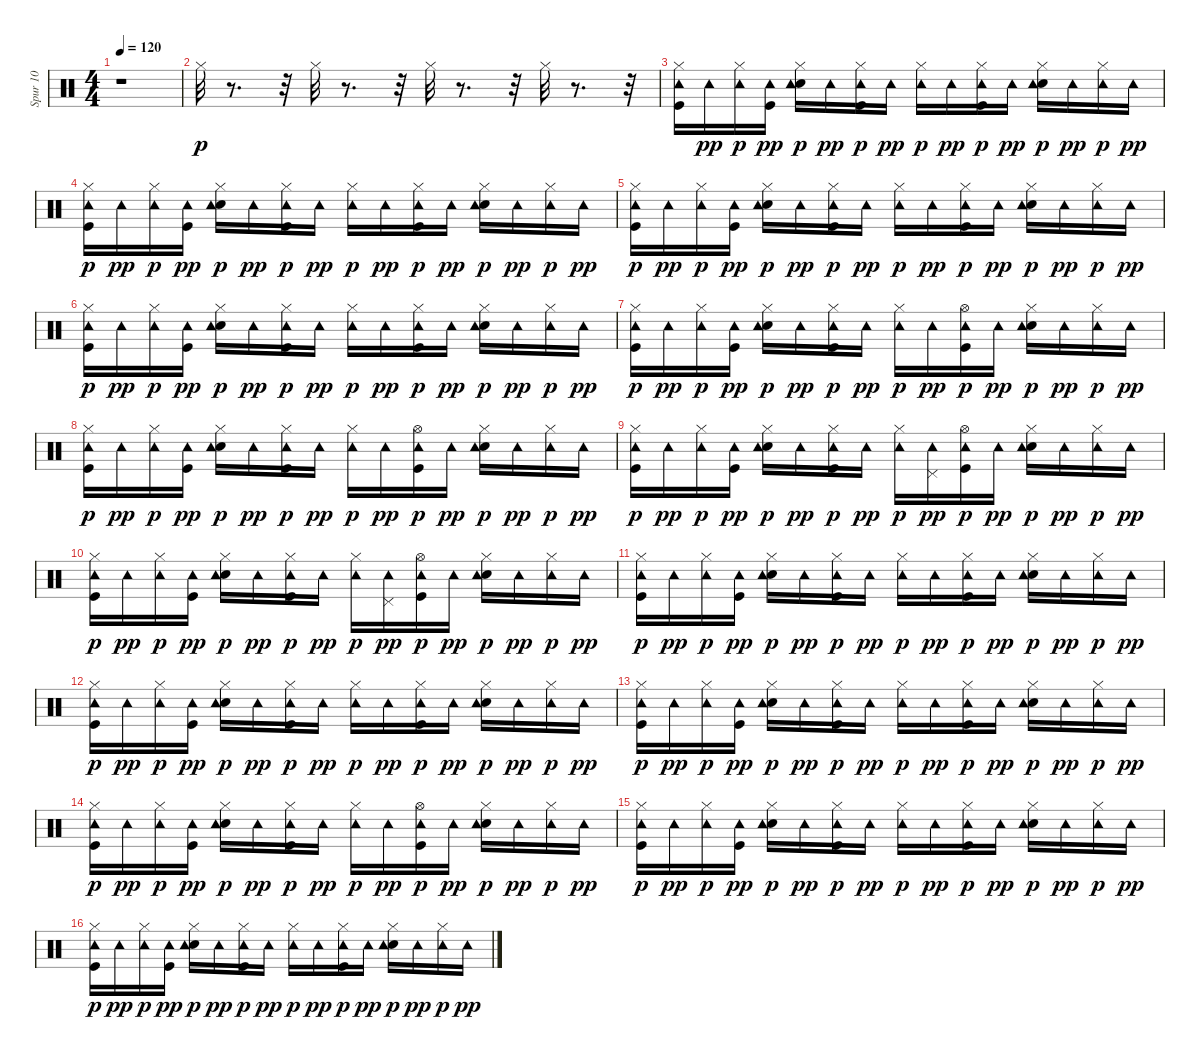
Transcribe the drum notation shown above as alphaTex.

\track ("Spur 10" "Spur 10") {instrument percussion}
\staff {score}
\articulation defaults
\ts (4 4)
\tempo 120
\clef neutral
\ks c
r.1{dy p} |
"Hi-Hat (closed)".32 r.8{d} r.32 "Hi-Hat (closed)".32 r.8{d} r.32 "Hi-Hat (closed)".32 r.8{d} r.32 "Hi-Hat (closed)".32 r.8{d} r.32 |
("Kick (hit)" "Hi-Hat (closed)" "Tambourine (hit)").16 "Tambourine (hit)".16{dy pp} ("Hi-Hat (closed)" "Tambourine (hit)").16{dy p} ("Kick (hit)" "Tambourine (hit)").16{dy pp} ("Electric Snare (hit)" "Hi-Hat (closed)" "Tambourine (hit)").16{dy p} "Tambourine (hit)".16{dy pp} ("Kick (hit)" "Hi-Hat (closed)" "Tambourine (hit)").16{dy p} "Tambourine (hit)".16{dy pp} ("Hi-Hat (closed)" "Tambourine (hit)").16{dy p} "Tambourine (hit)".16{dy pp} ("Kick (hit)" "Hi-Hat (closed)" "Tambourine (hit)").16{dy p} "Tambourine (hit)".16{dy pp} ("Electric Snare (hit)" "Hi-Hat (closed)" "Tambourine (hit)").16{dy p} "Tambourine (hit)".16{dy pp} ("Hi-Hat (closed)" "Tambourine (hit)").16{dy p} "Tambourine (hit)".16{dy pp} |
("Kick (hit)" "Hi-Hat (closed)" "Tambourine (hit)").16{dy p} "Tambourine (hit)".16{dy pp} ("Hi-Hat (closed)" "Tambourine (hit)").16{dy p} ("Kick (hit)" "Tambourine (hit)").16{dy pp} ("Electric Snare (hit)" "Hi-Hat (closed)" "Tambourine (hit)").16{dy p} "Tambourine (hit)".16{dy pp} ("Kick (hit)" "Hi-Hat (closed)" "Tambourine (hit)").16{dy p} "Tambourine (hit)".16{dy pp} ("Hi-Hat (closed)" "Tambourine (hit)").16{dy p} "Tambourine (hit)".16{dy pp} ("Kick (hit)" "Hi-Hat (closed)" "Tambourine (hit)").16{dy p} "Tambourine (hit)".16{dy pp} ("Electric Snare (hit)" "Hi-Hat (closed)" "Tambourine (hit)").16{dy p} "Tambourine (hit)".16{dy pp} ("Hi-Hat (closed)" "Tambourine (hit)").16{dy p} "Tambourine (hit)".16{dy pp} |
("Kick (hit)" "Hi-Hat (closed)" "Tambourine (hit)").16{dy p} "Tambourine (hit)".16{dy pp} ("Hi-Hat (closed)" "Tambourine (hit)").16{dy p} ("Kick (hit)" "Tambourine (hit)").16{dy pp} ("Electric Snare (hit)" "Hi-Hat (closed)" "Tambourine (hit)").16{dy p} "Tambourine (hit)".16{dy pp} ("Kick (hit)" "Hi-Hat (closed)" "Tambourine (hit)").16{dy p} "Tambourine (hit)".16{dy pp} ("Hi-Hat (closed)" "Tambourine (hit)").16{dy p} "Tambourine (hit)".16{dy pp} ("Kick (hit)" "Hi-Hat (closed)" "Tambourine (hit)").16{dy p} "Tambourine (hit)".16{dy pp} ("Electric Snare (hit)" "Hi-Hat (closed)" "Tambourine (hit)").16{dy p} "Tambourine (hit)".16{dy pp} ("Hi-Hat (closed)" "Tambourine (hit)").16{dy p} "Tambourine (hit)".16{dy pp} |
("Kick (hit)" "Hi-Hat (closed)" "Tambourine (hit)").16{dy p} "Tambourine (hit)".16{dy pp} ("Hi-Hat (closed)" "Tambourine (hit)").16{dy p} ("Kick (hit)" "Tambourine (hit)").16{dy pp} ("Electric Snare (hit)" "Hi-Hat (closed)" "Tambourine (hit)").16{dy p} "Tambourine (hit)".16{dy pp} ("Kick (hit)" "Hi-Hat (closed)" "Tambourine (hit)").16{dy p} "Tambourine (hit)".16{dy pp} ("Hi-Hat (closed)" "Tambourine (hit)").16{dy p} "Tambourine (hit)".16{dy pp} ("Kick (hit)" "Hi-Hat (closed)" "Tambourine (hit)").16{dy p} "Tambourine (hit)".16{dy pp} ("Electric Snare (hit)" "Hi-Hat (closed)" "Tambourine (hit)").16{dy p} "Tambourine (hit)".16{dy pp} ("Hi-Hat (closed)" "Tambourine (hit)").16{dy p} "Tambourine (hit)".16{dy pp} |
("Kick (hit)" "Hi-Hat (closed)" "Tambourine (hit)").16{dy p} "Tambourine (hit)".16{dy pp} ("Hi-Hat (closed)" "Tambourine (hit)").16{dy p} ("Kick (hit)" "Tambourine (hit)").16{dy pp} ("Electric Snare (hit)" "Hi-Hat (closed)" "Tambourine (hit)").16{dy p} "Tambourine (hit)".16{dy pp} ("Kick (hit)" "Hi-Hat (closed)" "Tambourine (hit)").16{dy p} "Tambourine (hit)".16{dy pp} ("Hi-Hat (closed)" "Tambourine (hit)").16{dy p} "Tambourine (hit)".16{dy pp} ("Kick (hit)" "Hi-Hat (open)" "Tambourine (hit)").16{dy p} "Tambourine (hit)".16{dy pp} ("Electric Snare (hit)" "Hi-Hat (closed)" "Tambourine (hit)").16{dy p} "Tambourine (hit)".16{dy pp} ("Hi-Hat (closed)" "Tambourine (hit)").16{dy p} "Tambourine (hit)".16{dy pp} |
("Kick (hit)" "Hi-Hat (closed)" "Tambourine (hit)").16{dy p} "Tambourine (hit)".16{dy pp} ("Hi-Hat (closed)" "Tambourine (hit)").16{dy p} ("Kick (hit)" "Tambourine (hit)").16{dy pp} ("Electric Snare (hit)" "Hi-Hat (closed)" "Tambourine (hit)").16{dy p} "Tambourine (hit)".16{dy pp} ("Kick (hit)" "Hi-Hat (closed)" "Tambourine (hit)").16{dy p} "Tambourine (hit)".16{dy pp} ("Hi-Hat (closed)" "Tambourine (hit)").16{dy p} "Tambourine (hit)".16{dy pp} ("Kick (hit)" "Hi-Hat (open)" "Tambourine (hit)").16{dy p} "Tambourine (hit)".16{dy pp} ("Electric Snare (hit)" "Hi-Hat (closed)" "Tambourine (hit)").16{dy p} "Tambourine (hit)".16{dy pp} ("Hi-Hat (closed)" "Tambourine (hit)").16{dy p} "Tambourine (hit)".16{dy pp} |
("Kick (hit)" "Hi-Hat (closed)" "Tambourine (hit)").16{dy p} "Tambourine (hit)".16{dy pp} ("Hi-Hat (closed)" "Tambourine (hit)").16{dy p} ("Kick (hit)" "Tambourine (hit)").16{dy pp} ("Electric Snare (hit)" "Hi-Hat (closed)" "Tambourine (hit)").16{dy p} "Tambourine (hit)".16{dy pp} ("Kick (hit)" "Hi-Hat (closed)" "Tambourine (hit)").16{dy p} "Tambourine (hit)".16{dy pp} ("Hi-Hat (closed)" "Tambourine (hit)").16{dy p} ("Pedal Hi-Hat (hit)" "Tambourine (hit)").16{dy pp} ("Kick (hit)" "Hi-Hat (open)" "Tambourine (hit)").16{dy p} "Tambourine (hit)".16{dy pp} ("Electric Snare (hit)" "Hi-Hat (closed)" "Tambourine (hit)").16{dy p} "Tambourine (hit)".16{dy pp} ("Hi-Hat (closed)" "Tambourine (hit)").16{dy p} "Tambourine (hit)".16{dy pp} |
("Kick (hit)" "Hi-Hat (closed)" "Tambourine (hit)").16{dy p} "Tambourine (hit)".16{dy pp} ("Hi-Hat (closed)" "Tambourine (hit)").16{dy p} ("Kick (hit)" "Tambourine (hit)").16{dy pp} ("Electric Snare (hit)" "Hi-Hat (closed)" "Tambourine (hit)").16{dy p} "Tambourine (hit)".16{dy pp} ("Kick (hit)" "Hi-Hat (closed)" "Tambourine (hit)").16{dy p} "Tambourine (hit)".16{dy pp} ("Hi-Hat (closed)" "Tambourine (hit)").16{dy p} ("Pedal Hi-Hat (hit)" "Tambourine (hit)").16{dy pp} ("Kick (hit)" "Hi-Hat (open)" "Tambourine (hit)").16{dy p} "Tambourine (hit)".16{dy pp} ("Electric Snare (hit)" "Hi-Hat (closed)" "Tambourine (hit)").16{dy p} "Tambourine (hit)".16{dy pp} ("Hi-Hat (closed)" "Tambourine (hit)").16{dy p} "Tambourine (hit)".16{dy pp} |
("Kick (hit)" "Hi-Hat (closed)" "Tambourine (hit)").16{dy p} "Tambourine (hit)".16{dy pp} ("Hi-Hat (closed)" "Tambourine (hit)").16{dy p} ("Kick (hit)" "Tambourine (hit)").16{dy pp} ("Electric Snare (hit)" "Hi-Hat (closed)" "Tambourine (hit)").16{dy p} "Tambourine (hit)".16{dy pp} ("Kick (hit)" "Hi-Hat (closed)" "Tambourine (hit)").16{dy p} "Tambourine (hit)".16{dy pp} ("Hi-Hat (closed)" "Tambourine (hit)").16{dy p} "Tambourine (hit)".16{dy pp} ("Kick (hit)" "Hi-Hat (closed)" "Tambourine (hit)").16{dy p} "Tambourine (hit)".16{dy pp} ("Electric Snare (hit)" "Hi-Hat (closed)" "Tambourine (hit)").16{dy p} "Tambourine (hit)".16{dy pp} ("Hi-Hat (closed)" "Tambourine (hit)").16{dy p} "Tambourine (hit)".16{dy pp} |
("Kick (hit)" "Hi-Hat (closed)" "Tambourine (hit)").16{dy p} "Tambourine (hit)".16{dy pp} ("Hi-Hat (closed)" "Tambourine (hit)").16{dy p} ("Kick (hit)" "Tambourine (hit)").16{dy pp} ("Electric Snare (hit)" "Hi-Hat (closed)" "Tambourine (hit)").16{dy p} "Tambourine (hit)".16{dy pp} ("Kick (hit)" "Hi-Hat (closed)" "Tambourine (hit)").16{dy p} "Tambourine (hit)".16{dy pp} ("Hi-Hat (closed)" "Tambourine (hit)").16{dy p} "Tambourine (hit)".16{dy pp} ("Kick (hit)" "Hi-Hat (closed)" "Tambourine (hit)").16{dy p} "Tambourine (hit)".16{dy pp} ("Electric Snare (hit)" "Hi-Hat (closed)" "Tambourine (hit)").16{dy p} "Tambourine (hit)".16{dy pp} ("Hi-Hat (closed)" "Tambourine (hit)").16{dy p} "Tambourine (hit)".16{dy pp} |
("Kick (hit)" "Hi-Hat (closed)" "Tambourine (hit)").16{dy p} "Tambourine (hit)".16{dy pp} ("Hi-Hat (closed)" "Tambourine (hit)").16{dy p} ("Kick (hit)" "Tambourine (hit)").16{dy pp} ("Electric Snare (hit)" "Hi-Hat (closed)" "Tambourine (hit)").16{dy p} "Tambourine (hit)".16{dy pp} ("Kick (hit)" "Hi-Hat (closed)" "Tambourine (hit)").16{dy p} "Tambourine (hit)".16{dy pp} ("Hi-Hat (closed)" "Tambourine (hit)").16{dy p} "Tambourine (hit)".16{dy pp} ("Kick (hit)" "Hi-Hat (closed)" "Tambourine (hit)").16{dy p} "Tambourine (hit)".16{dy pp} ("Electric Snare (hit)" "Hi-Hat (closed)" "Tambourine (hit)").16{dy p} "Tambourine (hit)".16{dy pp} ("Hi-Hat (closed)" "Tambourine (hit)").16{dy p} "Tambourine (hit)".16{dy pp} |
("Kick (hit)" "Hi-Hat (closed)" "Tambourine (hit)").16{dy p} "Tambourine (hit)".16{dy pp} ("Hi-Hat (closed)" "Tambourine (hit)").16{dy p} ("Kick (hit)" "Tambourine (hit)").16{dy pp} ("Electric Snare (hit)" "Hi-Hat (closed)" "Tambourine (hit)").16{dy p} "Tambourine (hit)".16{dy pp} ("Kick (hit)" "Hi-Hat (closed)" "Tambourine (hit)").16{dy p} "Tambourine (hit)".16{dy pp} ("Hi-Hat (closed)" "Tambourine (hit)").16{dy p} "Tambourine (hit)".16{dy pp} ("Kick (hit)" "Hi-Hat (open)" "Tambourine (hit)").16{dy p} "Tambourine (hit)".16{dy pp} ("Electric Snare (hit)" "Hi-Hat (closed)" "Tambourine (hit)").16{dy p} "Tambourine (hit)".16{dy pp} ("Hi-Hat (closed)" "Tambourine (hit)").16{dy p} "Tambourine (hit)".16{dy pp} |
("Kick (hit)" "Hi-Hat (closed)" "Tambourine (hit)").16{dy p} "Tambourine (hit)".16{dy pp} ("Hi-Hat (closed)" "Tambourine (hit)").16{dy p} ("Kick (hit)" "Tambourine (hit)").16{dy pp} ("Electric Snare (hit)" "Hi-Hat (closed)" "Tambourine (hit)").16{dy p} "Tambourine (hit)".16{dy pp} ("Kick (hit)" "Hi-Hat (closed)" "Tambourine (hit)").16{dy p} "Tambourine (hit)".16{dy pp} ("Hi-Hat (closed)" "Tambourine (hit)").16{dy p} "Tambourine (hit)".16{dy pp} ("Kick (hit)" "Hi-Hat (closed)" "Tambourine (hit)").16{dy p} "Tambourine (hit)".16{dy pp} ("Electric Snare (hit)" "Hi-Hat (closed)" "Tambourine (hit)").16{dy p} "Tambourine (hit)".16{dy pp} ("Hi-Hat (closed)" "Tambourine (hit)").16{dy p} "Tambourine (hit)".16{dy pp} |
("Kick (hit)" "Hi-Hat (closed)" "Tambourine (hit)").16{dy p} "Tambourine (hit)".16{dy pp} ("Hi-Hat (closed)" "Tambourine (hit)").16{dy p} ("Kick (hit)" "Tambourine (hit)").16{dy pp} ("Electric Snare (hit)" "Hi-Hat (closed)" "Tambourine (hit)").16{dy p} "Tambourine (hit)".16{dy pp} ("Kick (hit)" "Hi-Hat (closed)" "Tambourine (hit)").16{dy p} "Tambourine (hit)".16{dy pp} ("Hi-Hat (closed)" "Tambourine (hit)").16{dy p} "Tambourine (hit)".16{dy pp} ("Kick (hit)" "Hi-Hat (closed)" "Tambourine (hit)").16{dy p} "Tambourine (hit)".16{dy pp} ("Electric Snare (hit)" "Hi-Hat (closed)" "Tambourine (hit)").16{dy p} "Tambourine (hit)".16{dy pp} ("Hi-Hat (closed)" "Tambourine (hit)").16{dy p} "Tambourine (hit)".16{dy pp}
